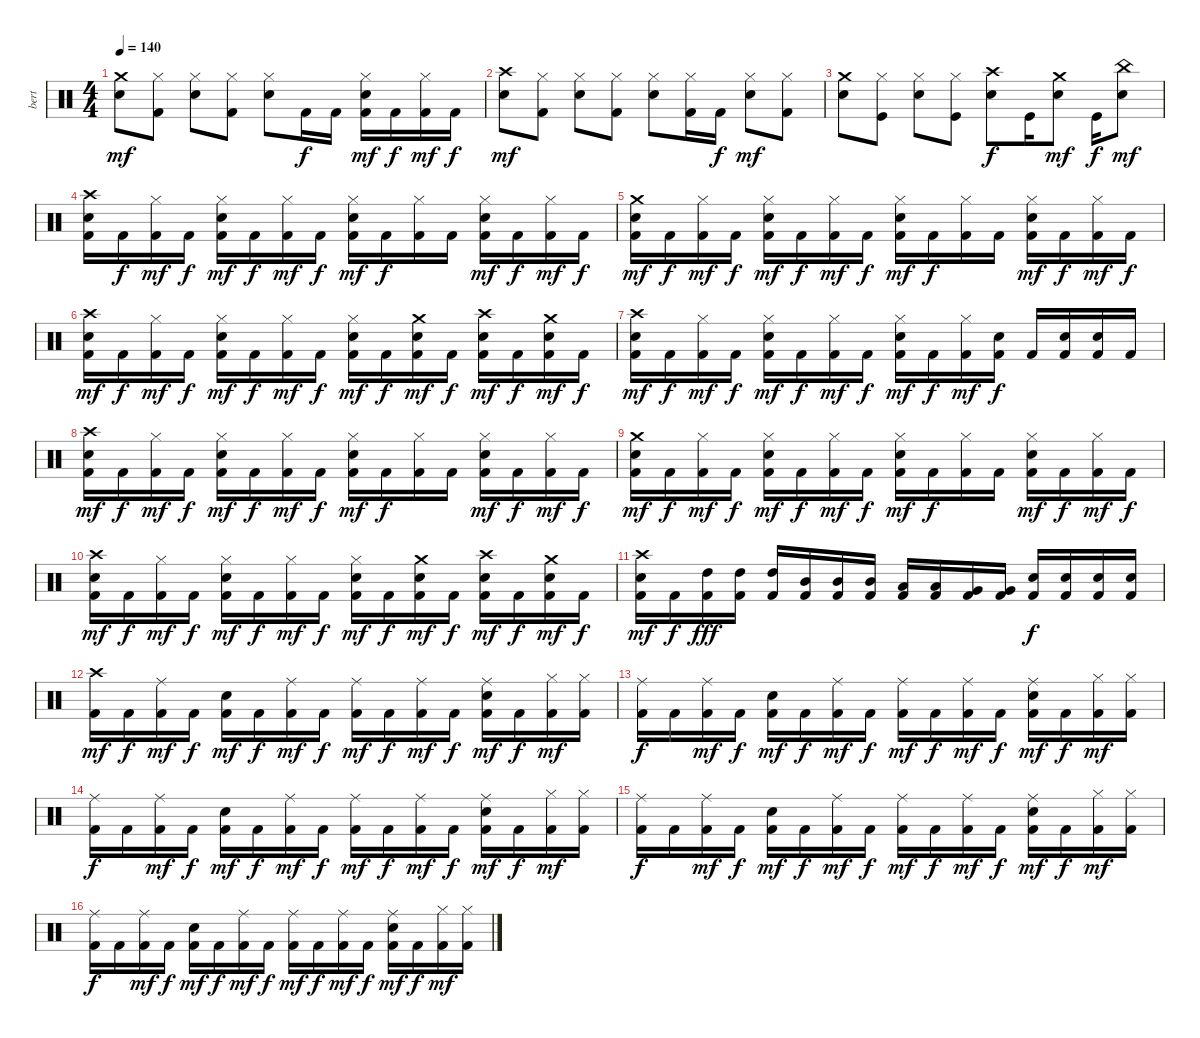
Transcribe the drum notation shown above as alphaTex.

\track ("bert" "bert") {instrument percussion}
\staff {score}
\articulation defaults
\ts (4 4)
\tempo 140
\clef neutral
\ks c
("Crash medium (hit)" "Snare (hit) 2").8{dy mf} ("Hi-Hat (closed)" "Kick (hit) 2").8 ("Hi-Hat (closed)" "Snare (hit) 2").8 ("Hi-Hat (closed)" "Kick (hit) 2").8 ("Hi-Hat (closed)" "Snare (hit) 2").8 "Kick (hit) 2".16{dy f} "Kick (hit) 2".16 ("Hi-Hat (closed)" "Snare (hit) 2" "Kick (hit) 2").16{dy mf} "Kick (hit) 2".16{dy f} ("Hi-Hat (closed)" "Kick (hit) 2").16{dy mf} "Kick (hit) 2".16{dy f} |
("Crash high (hit)" "Snare (hit) 2").8{dy mf} ("Hi-Hat (closed)" "Kick (hit) 2").8 ("Hi-Hat (closed)" "Snare (hit) 2").8 ("Hi-Hat (closed)" "Kick (hit) 2").8 ("Hi-Hat (closed)" "Snare (hit) 2").8 ("Hi-Hat (closed)" "Kick (hit) 2").16 "Kick (hit) 2".16{dy f} ("Hi-Hat (closed)" "Snare (hit) 2").8{dy mf} ("Hi-Hat (closed)" "Kick (hit) 2").8 |
("Crash medium (hit)" "Snare (hit) 2").8 ("Hi-Hat (closed)" "Kick (hit)").8 ("Hi-Hat (closed)" "Snare (hit) 2").8 ("Hi-Hat (closed)" "Kick (hit)").8 ("Crash high (hit)" "Snare (hit) 2").8{dy f} "Kick (hit)".16 ("Crash medium (hit)" "Snare (hit) 2").8{dy mf} "Kick (hit)".16{dy f} ("China (hit)" "Snare (hit) 2").8{dy mf} |
("Crash high (hit)" "Snare (hit) 2" "Kick (hit) 2").16 "Kick (hit) 2".16{dy f} ("Hi-Hat (closed)" "Kick (hit) 2").16{dy mf} "Kick (hit) 2".16{dy f} ("Hi-Hat (closed)" "Snare (hit) 2" "Kick (hit) 2").16{dy mf} "Kick (hit) 2".16{dy f} ("Hi-Hat (closed)" "Kick (hit) 2").16{dy mf} "Kick (hit) 2".16{dy f} ("Hi-Hat (closed)" "Snare (hit) 2" "Kick (hit) 2").16{dy mf} "Kick (hit) 2".16{dy f} ("Hi-Hat (closed)" "Kick (hit) 2").16 "Kick (hit) 2".16 ("Hi-Hat (closed)" "Snare (hit) 2" "Kick (hit) 2").16{dy mf} "Kick (hit) 2".16{dy f} ("Hi-Hat (closed)" "Kick (hit) 2").16{dy mf} "Kick (hit) 2".16{dy f} |
("Crash medium (hit)" "Snare (hit) 2" "Kick (hit) 2").16{dy mf} "Kick (hit) 2".16{dy f} ("Hi-Hat (closed)" "Kick (hit) 2").16{dy mf} "Kick (hit) 2".16{dy f} ("Hi-Hat (closed)" "Snare (hit) 2" "Kick (hit) 2").16{dy mf} "Kick (hit) 2".16{dy f} ("Hi-Hat (closed)" "Kick (hit) 2").16{dy mf} "Kick (hit) 2".16{dy f} ("Hi-Hat (closed)" "Snare (hit) 2" "Kick (hit) 2").16{dy mf} "Kick (hit) 2".16{dy f} ("Hi-Hat (closed)" "Kick (hit) 2").16 "Kick (hit) 2".16 ("Hi-Hat (closed)" "Snare (hit) 2" "Kick (hit) 2").16{dy mf} "Kick (hit) 2".16{dy f} ("Hi-Hat (closed)" "Kick (hit) 2").16{dy mf} "Kick (hit) 2".16{dy f} |
("Crash high (hit)" "Snare (hit) 2" "Kick (hit) 2").16{dy mf} "Kick (hit) 2".16{dy f} ("Hi-Hat (closed)" "Kick (hit) 2").16{dy mf} "Kick (hit) 2".16{dy f} ("Hi-Hat (closed)" "Snare (hit) 2" "Kick (hit) 2").16{dy mf} "Kick (hit) 2".16{dy f} ("Hi-Hat (closed)" "Kick (hit) 2").16{dy mf} "Kick (hit) 2".16{dy f} ("Hi-Hat (closed)" "Snare (hit) 2" "Kick (hit) 2").16{dy mf} "Kick (hit) 2".16{dy f} ("Crash medium (hit)" "Snare (hit) 2" "Kick (hit) 2").16{dy mf} "Kick (hit) 2".16{dy f} ("Crash high (hit)" "Snare (hit) 2" "Kick (hit) 2").16{dy mf} "Kick (hit) 2".16{dy f} ("Crash medium (hit)" "Snare (hit) 2" "Kick (hit) 2").16{dy mf} "Kick (hit) 2".16{dy f} |
("Crash high (hit)" "Snare (hit) 2" "Kick (hit) 2").16{dy mf} "Kick (hit) 2".16{dy f} ("Hi-Hat (closed)" "Kick (hit) 2").16{dy mf} "Kick (hit) 2".16{dy f} ("Hi-Hat (closed)" "Snare (hit) 2" "Kick (hit) 2").16{dy mf} "Kick (hit) 2".16{dy f} ("Hi-Hat (closed)" "Kick (hit) 2").16{dy mf} "Kick (hit) 2".16{dy f} ("Hi-Hat (closed)" "Snare (hit) 2" "Kick (hit) 2").16{dy mf} "Kick (hit) 2".16{dy f} ("Hi-Hat (closed)" "Kick (hit) 2").16{dy mf} ("Snare (hit) 2" "Kick (hit) 2").16{dy f} "Kick (hit) 2".16 ("Snare (hit) 2" "Kick (hit) 2").16 ("Snare (hit) 2" "Kick (hit) 2").16 "Kick (hit) 2".16 |
("Crash high (hit)" "Snare (hit) 2" "Kick (hit) 2").16{dy mf} "Kick (hit) 2".16{dy f} ("Hi-Hat (closed)" "Kick (hit) 2").16{dy mf} "Kick (hit) 2".16{dy f} ("Hi-Hat (closed)" "Snare (hit) 2" "Kick (hit) 2").16{dy mf} "Kick (hit) 2".16{dy f} ("Hi-Hat (closed)" "Kick (hit) 2").16{dy mf} "Kick (hit) 2".16{dy f} ("Hi-Hat (closed)" "Snare (hit) 2" "Kick (hit) 2").16{dy mf} "Kick (hit) 2".16{dy f} ("Hi-Hat (closed)" "Kick (hit) 2").16 "Kick (hit) 2".16 ("Hi-Hat (closed)" "Snare (hit) 2" "Kick (hit) 2").16{dy mf} "Kick (hit) 2".16{dy f} ("Hi-Hat (closed)" "Kick (hit) 2").16{dy mf} "Kick (hit) 2".16{dy f} |
("Crash medium (hit)" "Snare (hit) 2" "Kick (hit) 2").16{dy mf} "Kick (hit) 2".16{dy f} ("Hi-Hat (closed)" "Kick (hit) 2").16{dy mf} "Kick (hit) 2".16{dy f} ("Hi-Hat (closed)" "Snare (hit) 2" "Kick (hit) 2").16{dy mf} "Kick (hit) 2".16{dy f} ("Hi-Hat (closed)" "Kick (hit) 2").16{dy mf} "Kick (hit) 2".16{dy f} ("Hi-Hat (closed)" "Snare (hit) 2" "Kick (hit) 2").16{dy mf} "Kick (hit) 2".16{dy f} ("Hi-Hat (closed)" "Kick (hit) 2").16 "Kick (hit) 2".16 ("Hi-Hat (closed)" "Snare (hit) 2" "Kick (hit) 2").16{dy mf} "Kick (hit) 2".16{dy f} ("Hi-Hat (closed)" "Kick (hit) 2").16{dy mf} "Kick (hit) 2".16{dy f} |
("Crash high (hit)" "Snare (hit) 2" "Kick (hit) 2").16{dy mf} "Kick (hit) 2".16{dy f} ("Hi-Hat (closed)" "Kick (hit) 2").16{dy mf} "Kick (hit) 2".16{dy f} ("Hi-Hat (closed)" "Snare (hit) 2" "Kick (hit) 2").16{dy mf} "Kick (hit) 2".16{dy f} ("Hi-Hat (closed)" "Kick (hit) 2").16{dy mf} "Kick (hit) 2".16{dy f} ("Hi-Hat (closed)" "Snare (hit) 2" "Kick (hit) 2").16{dy mf} "Kick (hit) 2".16{dy f} ("Crash medium (hit)" "Snare (hit) 2" "Kick (hit) 2").16{dy mf} "Kick (hit) 2".16{dy f} ("Crash high (hit)" "Snare (hit) 2" "Kick (hit) 2").16{dy mf} "Kick (hit) 2".16{dy f} ("Crash medium (hit)" "Snare (hit) 2" "Kick (hit) 2").16{dy mf} "Kick (hit) 2".16{dy f} |
("Crash high (hit)" "Snare (hit) 2" "Kick (hit) 2").16{dy mf} "Kick (hit) 2".16{dy f} ("High Tom (hit)" "Kick (hit) 2").16{dy fff} ("High Tom (hit)" "Kick (hit) 2").16 ("High Tom (hit)" "Kick (hit) 2").16 ("Mid Tom (hit)" "Kick (hit) 2").16 ("Mid Tom (hit)" "Kick (hit) 2").16 ("Mid Tom (hit)" "Kick (hit) 2").16 ("Low Tom (hit)" "Kick (hit) 2").16 ("Low Tom (hit)" "Kick (hit) 2").16 ("Very Low Tom (hit)" "Kick (hit) 2").16 ("Very Low Tom (hit)" "Kick (hit) 2").16 ("Snare (hit) 2" "Kick (hit) 2").16{dy f} ("Snare (hit) 2" "Kick (hit) 2").16 ("Snare (hit) 2" "Kick (hit) 2").16 ("Snare (hit) 2" "Kick (hit) 2").16 |
("Crash high (hit)" "Kick (hit) 2").16{dy mf} "Kick (hit) 2".16{dy f} ("Ride (middle)" "Kick (hit) 2").16{dy mf} "Kick (hit) 2".16{dy f} ("Snare (hit) 2" "Kick (hit) 2").16{dy mf} "Kick (hit) 2".16{dy f} ("Ride (middle)" "Kick (hit) 2").16{dy mf} "Kick (hit) 2".16{dy f} ("Ride (middle)" "Kick (hit) 2").16{dy mf} "Kick (hit) 2".16{dy f} ("Ride (middle)" "Kick (hit) 2").16{dy mf} "Kick (hit) 2".16{dy f} ("Ride (middle)" "Snare (hit) 2" "Kick (hit) 2").16{dy mf} "Kick (hit) 2".16{dy f} ("Hi-Hat (closed)" "Kick (hit) 2").16{dy mf} ("Hi-Hat (closed)" "Kick (hit) 2").16 |
("Ride (middle)" "Kick (hit) 2").16{dy f} "Kick (hit) 2".16 ("Ride (middle)" "Kick (hit) 2").16{dy mf} "Kick (hit) 2".16{dy f} ("Snare (hit) 2" "Kick (hit) 2").16{dy mf} "Kick (hit) 2".16{dy f} ("Ride (middle)" "Kick (hit) 2").16{dy mf} "Kick (hit) 2".16{dy f} ("Ride (middle)" "Kick (hit) 2").16{dy mf} "Kick (hit) 2".16{dy f} ("Ride (middle)" "Kick (hit) 2").16{dy mf} "Kick (hit) 2".16{dy f} ("Ride (middle)" "Snare (hit) 2" "Kick (hit) 2").16{dy mf} "Kick (hit) 2".16{dy f} ("Hi-Hat (closed)" "Kick (hit) 2").16{dy mf} ("Hi-Hat (closed)" "Kick (hit) 2").16 |
("Ride (middle)" "Kick (hit) 2").16{dy f} "Kick (hit) 2".16 ("Ride (middle)" "Kick (hit) 2").16{dy mf} "Kick (hit) 2".16{dy f} ("Snare (hit) 2" "Kick (hit) 2").16{dy mf} "Kick (hit) 2".16{dy f} ("Ride (middle)" "Kick (hit) 2").16{dy mf} "Kick (hit) 2".16{dy f} ("Ride (middle)" "Kick (hit) 2").16{dy mf} "Kick (hit) 2".16{dy f} ("Ride (middle)" "Kick (hit) 2").16{dy mf} "Kick (hit) 2".16{dy f} ("Ride (middle)" "Snare (hit) 2" "Kick (hit) 2").16{dy mf} "Kick (hit) 2".16{dy f} ("Hi-Hat (closed)" "Kick (hit) 2").16{dy mf} ("Hi-Hat (closed)" "Kick (hit) 2").16 |
("Ride (middle)" "Kick (hit) 2").16{dy f} "Kick (hit) 2".16 ("Ride (middle)" "Kick (hit) 2").16{dy mf} "Kick (hit) 2".16{dy f} ("Snare (hit) 2" "Kick (hit) 2").16{dy mf} "Kick (hit) 2".16{dy f} ("Ride (middle)" "Kick (hit) 2").16{dy mf} "Kick (hit) 2".16{dy f} ("Ride (middle)" "Kick (hit) 2").16{dy mf} "Kick (hit) 2".16{dy f} ("Ride (middle)" "Kick (hit) 2").16{dy mf} "Kick (hit) 2".16{dy f} ("Ride (middle)" "Snare (hit) 2" "Kick (hit) 2").16{dy mf} "Kick (hit) 2".16{dy f} ("Hi-Hat (closed)" "Kick (hit) 2").16{dy mf} ("Hi-Hat (closed)" "Kick (hit) 2").16 |
("Ride (middle)" "Kick (hit) 2").16{dy f} "Kick (hit) 2".16 ("Ride (middle)" "Kick (hit) 2").16{dy mf} "Kick (hit) 2".16{dy f} ("Snare (hit) 2" "Kick (hit) 2").16{dy mf} "Kick (hit) 2".16{dy f} ("Ride (middle)" "Kick (hit) 2").16{dy mf} "Kick (hit) 2".16{dy f} ("Ride (middle)" "Kick (hit) 2").16{dy mf} "Kick (hit) 2".16{dy f} ("Ride (middle)" "Kick (hit) 2").16{dy mf} "Kick (hit) 2".16{dy f} ("Ride (middle)" "Snare (hit) 2" "Kick (hit) 2").16{dy mf} "Kick (hit) 2".16{dy f} ("Hi-Hat (closed)" "Kick (hit) 2").16{dy mf} ("Hi-Hat (closed)" "Kick (hit) 2").16
